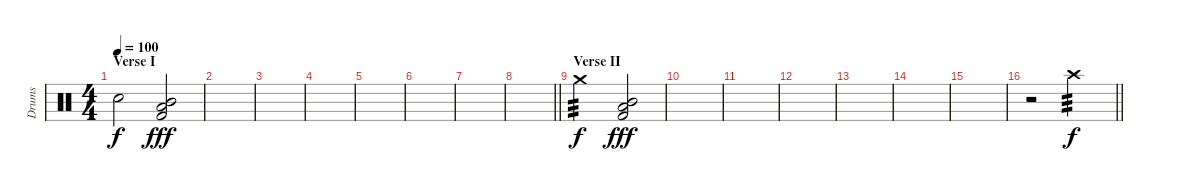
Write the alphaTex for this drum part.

\track ("Drums" "Drums") {instrument percussion}
\staff {score}
\articulation defaults
\ts (4 4)
\section ("" "Verse I")
\tempo 100
\clef neutral
\ks c "Snare (hit)"{t}.2{dy f}
("Kick (hit) 2" "Low Tom (hit)" "Mid Tom (hit)").2{dy fff} |
|
|
|
|
|
|
\barLineRight lightlight
|
\section ("" "Verse II")
"Crash medium (hit)".2{tp 3 dy f volume 14} ("Kick (hit) 2" "Low Tom (hit)" "Mid Tom (hit)").2{dy fff} |
|
|
|
|
|
|
\barLineRight lightlight
r.2{volume 0} "Crash high (hit)".2{tp 3 dy f volume 14}
